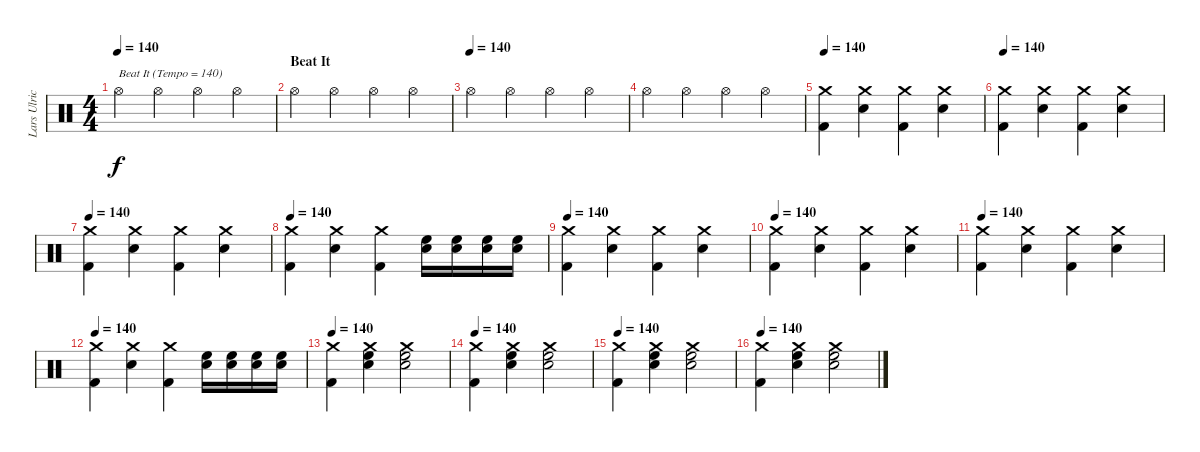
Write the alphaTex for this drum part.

\track ("Lars Ulrich" "Lars Ulric") {instrument percussion}
\staff {score}
\articulation defaults
\ts (4 4)
\tempo 140
\clef neutral
\ks c "Hi-Hat (open)".4{txt "Beat It (Tempo = 140)" dy f} "Hi-Hat (open)".4 "Hi-Hat (open)".4 "Hi-Hat (open)".4
|
\section ("" "Beat It ")
"Hi-Hat (open)".4 "Hi-Hat (open)".4 "Hi-Hat (open)".4 "Hi-Hat (open)".4 |
\tempo (140)
"Hi-Hat (open)".4 "Hi-Hat (open)".4 "Hi-Hat (open)".4 "Hi-Hat (open)".4 |
"Hi-Hat (open)".4 "Hi-Hat (open)".4 "Hi-Hat (open)".4 "Hi-Hat (open)".4 |
\tempo 140
("Crash medium (hit)" "Kick (hit) 2").4 ("Crash medium (hit)" "Electric Snare (hit)").4 ("Crash medium (hit)" "Kick (hit) 2").4 ("Crash medium (hit)" "Electric Snare (hit)").4 |
\tempo 140
("Crash medium (hit)" "Kick (hit) 2").4 ("Crash medium (hit)" "Electric Snare (hit)").4 ("Crash medium (hit)" "Kick (hit) 2").4 ("Crash medium (hit)" "Electric Snare (hit)").4 |
\tempo 140
("Crash medium (hit)" "Kick (hit) 2").4 ("Crash medium (hit)" "Electric Snare (hit)").4 ("Crash medium (hit)" "Kick (hit) 2").4 ("Crash medium (hit)" "Electric Snare (hit)").4 |
\tempo 140
("Crash medium (hit)" "Kick (hit) 2").4 ("Crash medium (hit)" "Electric Snare (hit)").4 ("Kick (hit) 2" "Crash medium (hit)").4 ("Electric Snare (hit)" "High Floor Tom (hit)").16 ("Electric Snare (hit)" "High Floor Tom (hit)").16 ("Electric Snare (hit)" "High Floor Tom (hit)").16 ("Electric Snare (hit)" "High Floor Tom (hit)").16 |
\tempo 140
("Crash medium (hit)" "Kick (hit) 2").4 ("Crash medium (hit)" "Electric Snare (hit)").4 ("Crash medium (hit)" "Kick (hit) 2").4 ("Crash medium (hit)" "Electric Snare (hit)").4 |
\tempo 140
("Crash medium (hit)" "Kick (hit) 2").4 ("Crash medium (hit)" "Electric Snare (hit)").4 ("Crash medium (hit)" "Kick (hit) 2").4 ("Crash medium (hit)" "Electric Snare (hit)").4 |
\tempo 140
("Crash medium (hit)" "Kick (hit) 2").4 ("Crash medium (hit)" "Electric Snare (hit)").4 ("Crash medium (hit)" "Kick (hit) 2").4 ("Crash medium (hit)" "Electric Snare (hit)").4 |
\tempo 140
("Crash medium (hit)" "Kick (hit) 2").4 ("Crash medium (hit)" "Electric Snare (hit)").4 ("Kick (hit) 2" "Crash medium (hit)").4 ("Electric Snare (hit)" "High Floor Tom (hit)").16 ("Electric Snare (hit)" "High Floor Tom (hit)").16 ("Electric Snare (hit)" "High Floor Tom (hit)").16 ("Electric Snare (hit)" "High Floor Tom (hit)").16 |
\tempo 140
("Crash medium (hit)" "Kick (hit) 2").4 ("Electric Snare (hit)" "High Floor Tom (hit)" "Crash medium (hit)").4 ("Electric Snare (hit)" "High Floor Tom (hit)" "Crash medium (hit)").2 |
\tempo 140
("Crash medium (hit)" "Kick (hit) 2").4 ("Electric Snare (hit)" "High Floor Tom (hit)" "Crash medium (hit)").4 ("Electric Snare (hit)" "High Floor Tom (hit)" "Crash medium (hit)").2 |
\tempo 140
("Crash medium (hit)" "Kick (hit) 2").4 ("Electric Snare (hit)" "High Floor Tom (hit)" "Crash medium (hit)").4 ("Electric Snare (hit)" "High Floor Tom (hit)" "Crash medium (hit)").2 |
\tempo 140
("Crash medium (hit)" "Kick (hit) 2").4 ("Electric Snare (hit)" "High Floor Tom (hit)" "Crash medium (hit)").4 ("Electric Snare (hit)" "High Floor Tom (hit)" "Crash medium (hit)").2
